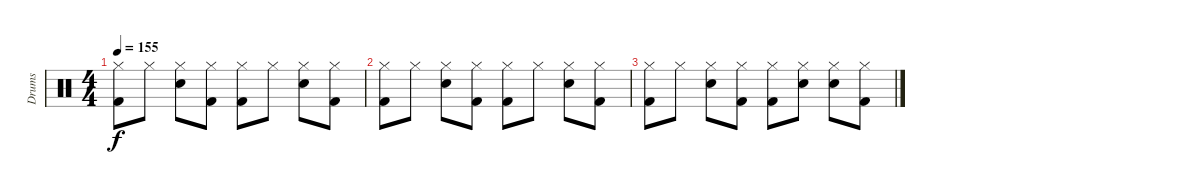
\track ("Drums" "Drums") {instrument percussion}
\staff {score}
\articulation defaults
\ts (4 4)
\tempo 155
\clef neutral
\ks c
("Hi-Hat (closed)" "Kick (hit) 2").8{dy f} "Hi-Hat (closed)".8 ("Hi-Hat (closed)" "Snare (hit) 2").8 ("Hi-Hat (closed)" "Kick (hit) 2").8 ("Hi-Hat (closed)" "Kick (hit) 2").8 "Hi-Hat (closed)".8 ("Hi-Hat (closed)" "Snare (hit) 2").8 ("Hi-Hat (closed)" "Kick (hit) 2").8 |
("Hi-Hat (closed)" "Kick (hit) 2").8 "Hi-Hat (closed)".8 ("Hi-Hat (closed)" "Snare (hit) 2").8 ("Hi-Hat (closed)" "Kick (hit) 2").8 ("Hi-Hat (closed)" "Kick (hit) 2").8 "Hi-Hat (closed)".8 ("Hi-Hat (closed)" "Snare (hit) 2").8 ("Hi-Hat (closed)" "Kick (hit) 2").8 |
("Hi-Hat (closed)" "Kick (hit) 2").8 "Hi-Hat (closed)".8 ("Hi-Hat (closed)" "Snare (hit) 2").8 ("Hi-Hat (closed)" "Kick (hit) 2").8 ("Hi-Hat (closed)" "Kick (hit) 2").8 ("Hi-Hat (closed)" "Hand Clap (hit)").8 ("Hi-Hat (closed)" "Snare (hit) 2").8 ("Hi-Hat (closed)" "Kick (hit) 2").8
